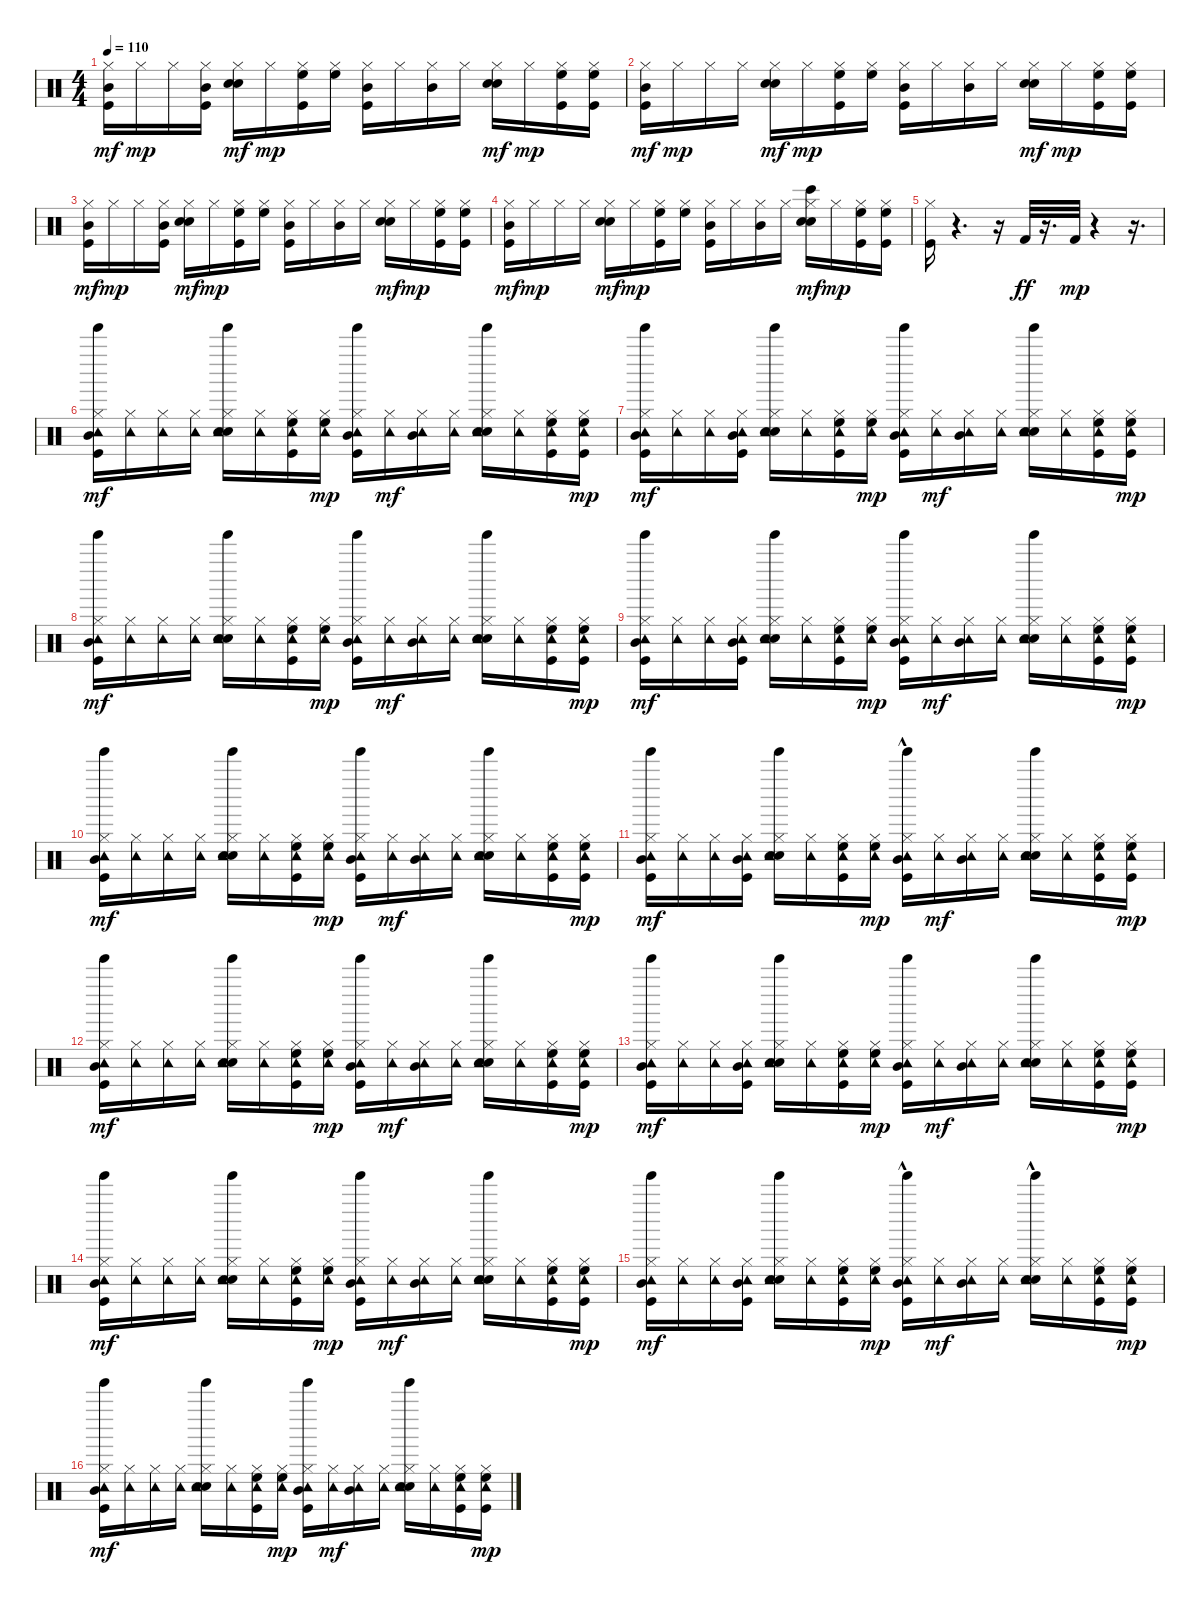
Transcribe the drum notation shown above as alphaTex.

\track "" {instrument percussion}
\staff {score}
\articulation defaults
\ts (4 4)
\tempo 110
\clef neutral
\ks c
("Kick (hit)" "Hi-Hat (closed)" "Mid Tom (hit)").16{dy mf} "Hi-Hat (closed)".16{dy mp} "Hi-Hat (closed)".16 ("Kick (hit)" "Hi-Hat (closed)" "Mid Tom (hit)").16 ("Electric Snare (hit)" "Hi-Hat (closed)" "Hand Clap (hit)").16{dy mf} "Hi-Hat (closed)".16{dy mp} ("Kick (hit)" "Hi-Hat (closed)" "High Floor Tom (hit)").16 ("Hi-Hat (closed)" "High Floor Tom (hit)").16 ("Kick (hit)" "Hi-Hat (closed)" "Mid Tom (hit)").16 "Hi-Hat (closed)".16 ("Hi-Hat (closed)" "Mid Tom (hit)").16 "Hi-Hat (closed)".16 ("Electric Snare (hit)" "Hi-Hat (closed)" "Hand Clap (hit)").16{dy mf} "Hi-Hat (closed)".16{dy mp} ("Kick (hit)" "Hi-Hat (closed)" "High Floor Tom (hit)").16 ("Kick (hit)" "Hi-Hat (closed)" "High Floor Tom (hit)").16 |
("Kick (hit)" "Hi-Hat (closed)" "Mid Tom (hit)").16{dy mf} "Hi-Hat (closed)".16{dy mp} "Hi-Hat (closed)".16 "Hi-Hat (closed)".16 ("Electric Snare (hit)" "Hi-Hat (closed)" "Hand Clap (hit)").16{dy mf} "Hi-Hat (closed)".16{dy mp} ("Kick (hit)" "Hi-Hat (closed)" "High Floor Tom (hit)").16 ("Hi-Hat (closed)" "High Floor Tom (hit)").16 ("Kick (hit)" "Hi-Hat (closed)" "Mid Tom (hit)").16 "Hi-Hat (closed)".16 ("Hi-Hat (closed)" "Mid Tom (hit)").16 "Hi-Hat (closed)".16 ("Electric Snare (hit)" "Hi-Hat (closed)" "Hand Clap (hit)").16{dy mf} "Hi-Hat (closed)".16{dy mp} ("Kick (hit)" "Hi-Hat (closed)" "High Floor Tom (hit)").16 ("Kick (hit)" "Hi-Hat (closed)" "High Floor Tom (hit)").16 |
("Kick (hit)" "Hi-Hat (closed)" "Mid Tom (hit)").16{dy mf} "Hi-Hat (closed)".16{dy mp} "Hi-Hat (closed)".16 ("Kick (hit)" "Hi-Hat (closed)" "Mid Tom (hit)").16 ("Electric Snare (hit)" "Hi-Hat (closed)" "Hand Clap (hit)").16{dy mf} "Hi-Hat (closed)".16{dy mp} ("Kick (hit)" "Hi-Hat (closed)" "High Floor Tom (hit)").16 ("Hi-Hat (closed)" "High Floor Tom (hit)").16 ("Kick (hit)" "Hi-Hat (closed)" "Mid Tom (hit)").16 "Hi-Hat (closed)".16 ("Hi-Hat (closed)" "Mid Tom (hit)").16 "Hi-Hat (closed)".16 ("Electric Snare (hit)" "Hi-Hat (closed)" "Hand Clap (hit)").16{dy mf} "Hi-Hat (closed)".16{dy mp} ("Kick (hit)" "Hi-Hat (closed)" "High Floor Tom (hit)").16 ("Kick (hit)" "Hi-Hat (closed)" "High Floor Tom (hit)").16 |
("Kick (hit)" "Hi-Hat (closed)" "Mid Tom (hit)").16{dy mf} "Hi-Hat (closed)".16{dy mp} "Hi-Hat (closed)".16 "Hi-Hat (closed)".16 ("Electric Snare (hit)" "Hi-Hat (closed)" "Hand Clap (hit)").16{dy mf} "Hi-Hat (closed)".16{dy mp} ("Kick (hit)" "Hi-Hat (closed)" "High Floor Tom (hit)").16 ("Hi-Hat (closed)" "High Floor Tom (hit)").16 ("Kick (hit)" "Hi-Hat (closed)" "Mid Tom (hit)").16 "Hi-Hat (closed)".16 ("Hi-Hat (closed)" "Mid Tom (hit)").16 "Hi-Hat (closed)".16 ("Bongo High (hit)" "Electric Snare (hit)" "Hi-Hat (closed)" "Hand Clap (hit)").16{dy mf} "Hi-Hat (closed)".16{dy mp} ("Kick (hit)" "Hi-Hat (closed)" "High Floor Tom (hit)").16 ("Kick (hit)" "Hi-Hat (closed)" "High Floor Tom (hit)").16 |
("Kick (hit)" "Hi-Hat (closed)").16 r.4{d} r.16 "Kick (hit) 2".32{dy ff} r.16{d} "Kick (hit) 2".32{dy mp} r.4 r.16{d} |
("Tinkle Bell (hit)" "Kick (hit)" "Hi-Hat (closed)" "Tambourine (hit)" "Mid Tom (hit)").16{dy mf} ("Hi-Hat (closed)" "Tambourine (hit)").16 ("Hi-Hat (closed)" "Tambourine (hit)").16 ("Hi-Hat (closed)" "Tambourine (hit)").16 ("Tinkle Bell (hit)" "Electric Snare (hit)" "Hi-Hat (closed)" "Tambourine (hit)" "Hand Clap (hit)").16 ("Hi-Hat (closed)" "Tambourine (hit)").16 ("Kick (hit)" "Hi-Hat (closed)" "Tambourine (hit)" "High Floor Tom (hit)").16 ("Hi-Hat (closed)" "Tambourine (hit)" "High Floor Tom (hit)").16{dy mp} ("Tinkle Bell (hit)" "Kick (hit)" "Hi-Hat (closed)" "Tambourine (hit)" "Mid Tom (hit)").16 ("Hi-Hat (closed)" "Tambourine (hit)").16{dy mf} ("Hi-Hat (closed)" "Tambourine (hit)" "Mid Tom (hit)").16 ("Hi-Hat (closed)" "Tambourine (hit)").16 ("Tinkle Bell (hit)" "Electric Snare (hit)" "Hi-Hat (closed)" "Tambourine (hit)" "Hand Clap (hit)").16 ("Hi-Hat (closed)" "Tambourine (hit)").16 ("Kick (hit)" "Hi-Hat (closed)" "Tambourine (hit)" "High Floor Tom (hit)").16 ("Kick (hit)" "Hi-Hat (closed)" "Tambourine (hit)" "High Floor Tom (hit)").16{dy mp} |
("Tinkle Bell (hit)" "Kick (hit)" "Hi-Hat (closed)" "Tambourine (hit)" "Mid Tom (hit)").16{dy mf} ("Hi-Hat (closed)" "Tambourine (hit)").16 ("Hi-Hat (closed)" "Tambourine (hit)").16 ("Kick (hit)" "Hi-Hat (closed)" "Tambourine (hit)" "Mid Tom (hit)").16 ("Tinkle Bell (hit)" "Electric Snare (hit)" "Hi-Hat (closed)" "Tambourine (hit)" "Hand Clap (hit)").16 ("Hi-Hat (closed)" "Tambourine (hit)").16 ("Kick (hit)" "Hi-Hat (closed)" "Tambourine (hit)" "High Floor Tom (hit)").16 ("Hi-Hat (closed)" "Tambourine (hit)" "High Floor Tom (hit)").16{dy mp} ("Tinkle Bell (hit)" "Kick (hit)" "Hi-Hat (closed)" "Tambourine (hit)" "Mid Tom (hit)").16 ("Hi-Hat (closed)" "Tambourine (hit)").16{dy mf} ("Hi-Hat (closed)" "Tambourine (hit)" "Mid Tom (hit)").16 ("Hi-Hat (closed)" "Tambourine (hit)").16 ("Tinkle Bell (hit)" "Electric Snare (hit)" "Hi-Hat (closed)" "Tambourine (hit)" "Hand Clap (hit)").16 ("Hi-Hat (closed)" "Tambourine (hit)").16 ("Kick (hit)" "Hi-Hat (closed)" "Tambourine (hit)" "High Floor Tom (hit)").16 ("Kick (hit)" "Hi-Hat (closed)" "Tambourine (hit)" "High Floor Tom (hit)").16{dy mp} |
("Tinkle Bell (hit)" "Kick (hit)" "Hi-Hat (closed)" "Tambourine (hit)" "Mid Tom (hit)").16{dy mf} ("Hi-Hat (closed)" "Tambourine (hit)").16 ("Hi-Hat (closed)" "Tambourine (hit)").16 ("Hi-Hat (closed)" "Tambourine (hit)").16 ("Tinkle Bell (hit)" "Electric Snare (hit)" "Hi-Hat (closed)" "Tambourine (hit)" "Hand Clap (hit)").16 ("Hi-Hat (closed)" "Tambourine (hit)").16 ("Kick (hit)" "Hi-Hat (closed)" "Tambourine (hit)" "High Floor Tom (hit)").16 ("Hi-Hat (closed)" "Tambourine (hit)" "High Floor Tom (hit)").16{dy mp} ("Tinkle Bell (hit)" "Kick (hit)" "Hi-Hat (closed)" "Tambourine (hit)" "Mid Tom (hit)").16 ("Hi-Hat (closed)" "Tambourine (hit)").16{dy mf} ("Hi-Hat (closed)" "Tambourine (hit)" "Mid Tom (hit)").16 ("Hi-Hat (closed)" "Tambourine (hit)").16 ("Tinkle Bell (hit)" "Electric Snare (hit)" "Hi-Hat (closed)" "Tambourine (hit)" "Hand Clap (hit)").16 ("Hi-Hat (closed)" "Tambourine (hit)").16 ("Kick (hit)" "Hi-Hat (closed)" "Tambourine (hit)" "High Floor Tom (hit)").16 ("Kick (hit)" "Hi-Hat (closed)" "Tambourine (hit)" "High Floor Tom (hit)").16{dy mp} |
("Tinkle Bell (hit)" "Kick (hit)" "Hi-Hat (closed)" "Tambourine (hit)" "Mid Tom (hit)").16{dy mf} ("Hi-Hat (closed)" "Tambourine (hit)").16 ("Hi-Hat (closed)" "Tambourine (hit)").16 ("Kick (hit)" "Hi-Hat (closed)" "Tambourine (hit)" "Mid Tom (hit)").16 ("Tinkle Bell (hit)" "Electric Snare (hit)" "Hi-Hat (closed)" "Tambourine (hit)" "Hand Clap (hit)").16 ("Hi-Hat (closed)" "Tambourine (hit)").16 ("Kick (hit)" "Hi-Hat (closed)" "Tambourine (hit)" "High Floor Tom (hit)").16 ("Hi-Hat (closed)" "Tambourine (hit)" "High Floor Tom (hit)").16{dy mp} ("Tinkle Bell (hit)" "Kick (hit)" "Hi-Hat (closed)" "Tambourine (hit)" "Mid Tom (hit)").16 ("Hi-Hat (closed)" "Tambourine (hit)").16{dy mf} ("Hi-Hat (closed)" "Tambourine (hit)" "Mid Tom (hit)").16 ("Hi-Hat (closed)" "Tambourine (hit)").16 ("Tinkle Bell (hit)" "Electric Snare (hit)" "Hi-Hat (closed)" "Tambourine (hit)" "Hand Clap (hit)").16 ("Hi-Hat (closed)" "Tambourine (hit)").16 ("Kick (hit)" "Hi-Hat (closed)" "Tambourine (hit)" "High Floor Tom (hit)").16 ("Kick (hit)" "Hi-Hat (closed)" "Tambourine (hit)" "High Floor Tom (hit)").16{dy mp} |
("Tinkle Bell (hit)" "Kick (hit)" "Hi-Hat (closed)" "Tambourine (hit)" "Mid Tom (hit)").16{dy mf} ("Hi-Hat (closed)" "Tambourine (hit)").16 ("Hi-Hat (closed)" "Tambourine (hit)").16 ("Hi-Hat (closed)" "Tambourine (hit)").16 ("Tinkle Bell (hit)" "Electric Snare (hit)" "Hi-Hat (closed)" "Tambourine (hit)" "Hand Clap (hit)").16 ("Hi-Hat (closed)" "Tambourine (hit)").16 ("Kick (hit)" "Hi-Hat (closed)" "Tambourine (hit)" "High Floor Tom (hit)").16 ("Hi-Hat (closed)" "Tambourine (hit)" "High Floor Tom (hit)").16{dy mp} ("Tinkle Bell (hit)" "Kick (hit)" "Hi-Hat (closed)" "Tambourine (hit)" "Mid Tom (hit)").16 ("Hi-Hat (closed)" "Tambourine (hit)").16{dy mf} ("Hi-Hat (closed)" "Tambourine (hit)" "Mid Tom (hit)").16 ("Hi-Hat (closed)" "Tambourine (hit)").16 ("Tinkle Bell (hit)" "Electric Snare (hit)" "Hi-Hat (closed)" "Tambourine (hit)" "Hand Clap (hit)").16 ("Hi-Hat (closed)" "Tambourine (hit)").16 ("Kick (hit)" "Hi-Hat (closed)" "Tambourine (hit)" "High Floor Tom (hit)").16 ("Kick (hit)" "Hi-Hat (closed)" "Tambourine (hit)" "High Floor Tom (hit)").16{dy mp} |
("Tinkle Bell (hit)" "Kick (hit)" "Hi-Hat (closed)" "Tambourine (hit)" "Mid Tom (hit)").16{dy mf} ("Hi-Hat (closed)" "Tambourine (hit)").16 ("Hi-Hat (closed)" "Tambourine (hit)").16 ("Kick (hit)" "Hi-Hat (closed)" "Tambourine (hit)" "Mid Tom (hit)").16 ("Tinkle Bell (hit)" "Electric Snare (hit)" "Hi-Hat (closed)" "Tambourine (hit)" "Hand Clap (hit)").16 ("Hi-Hat (closed)" "Tambourine (hit)").16 ("Kick (hit)" "Hi-Hat (closed)" "Tambourine (hit)" "High Floor Tom (hit)").16 ("Hi-Hat (closed)" "Tambourine (hit)" "High Floor Tom (hit)").16{dy mp} ("Tinkle Bell (hit)"{hac} "Kick (hit)" "Hi-Hat (closed)" "Tambourine (hit)" "Mid Tom (hit)").16 ("Hi-Hat (closed)" "Tambourine (hit)").16{dy mf} ("Hi-Hat (closed)" "Tambourine (hit)" "Mid Tom (hit)").16 ("Hi-Hat (closed)" "Tambourine (hit)").16 ("Tinkle Bell (hit)" "Electric Snare (hit)" "Hi-Hat (closed)" "Tambourine (hit)" "Hand Clap (hit)").16 ("Hi-Hat (closed)" "Tambourine (hit)").16 ("Kick (hit)" "Hi-Hat (closed)" "Tambourine (hit)" "High Floor Tom (hit)").16 ("Kick (hit)" "Hi-Hat (closed)" "Tambourine (hit)" "High Floor Tom (hit)").16{dy mp} |
("Tinkle Bell (hit)" "Kick (hit)" "Hi-Hat (closed)" "Tambourine (hit)" "Mid Tom (hit)").16{dy mf} ("Hi-Hat (closed)" "Tambourine (hit)").16 ("Hi-Hat (closed)" "Tambourine (hit)").16 ("Hi-Hat (closed)" "Tambourine (hit)").16 ("Tinkle Bell (hit)" "Electric Snare (hit)" "Hi-Hat (closed)" "Tambourine (hit)" "Hand Clap (hit)").16 ("Hi-Hat (closed)" "Tambourine (hit)").16 ("Kick (hit)" "Hi-Hat (closed)" "Tambourine (hit)" "High Floor Tom (hit)").16 ("Hi-Hat (closed)" "Tambourine (hit)" "High Floor Tom (hit)").16{dy mp} ("Tinkle Bell (hit)" "Kick (hit)" "Hi-Hat (closed)" "Tambourine (hit)" "Mid Tom (hit)").16 ("Hi-Hat (closed)" "Tambourine (hit)").16{dy mf} ("Hi-Hat (closed)" "Tambourine (hit)" "Mid Tom (hit)").16 ("Hi-Hat (closed)" "Tambourine (hit)").16 ("Tinkle Bell (hit)" "Electric Snare (hit)" "Hi-Hat (closed)" "Tambourine (hit)" "Hand Clap (hit)").16 ("Hi-Hat (closed)" "Tambourine (hit)").16 ("Kick (hit)" "Hi-Hat (closed)" "Tambourine (hit)" "High Floor Tom (hit)").16 ("Kick (hit)" "Hi-Hat (closed)" "Tambourine (hit)" "High Floor Tom (hit)").16{dy mp} |
("Tinkle Bell (hit)" "Kick (hit)" "Hi-Hat (closed)" "Tambourine (hit)" "Mid Tom (hit)").16{dy mf} ("Hi-Hat (closed)" "Tambourine (hit)").16 ("Hi-Hat (closed)" "Tambourine (hit)").16 ("Kick (hit)" "Hi-Hat (closed)" "Tambourine (hit)" "Mid Tom (hit)").16 ("Tinkle Bell (hit)" "Electric Snare (hit)" "Hi-Hat (closed)" "Tambourine (hit)" "Hand Clap (hit)").16 ("Hi-Hat (closed)" "Tambourine (hit)").16 ("Kick (hit)" "Hi-Hat (closed)" "Tambourine (hit)" "High Floor Tom (hit)").16 ("Hi-Hat (closed)" "Tambourine (hit)" "High Floor Tom (hit)").16{dy mp} ("Tinkle Bell (hit)" "Kick (hit)" "Hi-Hat (closed)" "Tambourine (hit)" "Mid Tom (hit)").16 ("Hi-Hat (closed)" "Tambourine (hit)").16{dy mf} ("Hi-Hat (closed)" "Tambourine (hit)" "Mid Tom (hit)").16 ("Hi-Hat (closed)" "Tambourine (hit)").16 ("Tinkle Bell (hit)" "Electric Snare (hit)" "Hi-Hat (closed)" "Tambourine (hit)" "Hand Clap (hit)").16 ("Hi-Hat (closed)" "Tambourine (hit)").16 ("Kick (hit)" "Hi-Hat (closed)" "Tambourine (hit)" "High Floor Tom (hit)").16 ("Kick (hit)" "Hi-Hat (closed)" "Tambourine (hit)" "High Floor Tom (hit)").16{dy mp} |
("Tinkle Bell (hit)" "Kick (hit)" "Hi-Hat (closed)" "Tambourine (hit)" "Mid Tom (hit)").16{dy mf} ("Hi-Hat (closed)" "Tambourine (hit)").16 ("Hi-Hat (closed)" "Tambourine (hit)").16 ("Hi-Hat (closed)" "Tambourine (hit)").16 ("Tinkle Bell (hit)" "Electric Snare (hit)" "Hi-Hat (closed)" "Tambourine (hit)" "Hand Clap (hit)").16 ("Hi-Hat (closed)" "Tambourine (hit)").16 ("Kick (hit)" "Hi-Hat (closed)" "Tambourine (hit)" "High Floor Tom (hit)").16 ("Hi-Hat (closed)" "Tambourine (hit)" "High Floor Tom (hit)").16{dy mp} ("Tinkle Bell (hit)" "Kick (hit)" "Hi-Hat (closed)" "Tambourine (hit)" "Mid Tom (hit)").16 ("Hi-Hat (closed)" "Tambourine (hit)").16{dy mf} ("Hi-Hat (closed)" "Tambourine (hit)" "Mid Tom (hit)").16 ("Hi-Hat (closed)" "Tambourine (hit)").16 ("Tinkle Bell (hit)" "Electric Snare (hit)" "Hi-Hat (closed)" "Tambourine (hit)" "Hand Clap (hit)").16 ("Hi-Hat (closed)" "Tambourine (hit)").16 ("Kick (hit)" "Hi-Hat (closed)" "Tambourine (hit)" "High Floor Tom (hit)").16 ("Kick (hit)" "Hi-Hat (closed)" "Tambourine (hit)" "High Floor Tom (hit)").16{dy mp} |
("Tinkle Bell (hit)" "Kick (hit)" "Hi-Hat (closed)" "Tambourine (hit)" "Mid Tom (hit)").16{dy mf} ("Hi-Hat (closed)" "Tambourine (hit)").16 ("Hi-Hat (closed)" "Tambourine (hit)").16 ("Kick (hit)" "Hi-Hat (closed)" "Tambourine (hit)" "Mid Tom (hit)").16 ("Tinkle Bell (hit)" "Electric Snare (hit)" "Hi-Hat (closed)" "Tambourine (hit)" "Hand Clap (hit)").16 ("Hi-Hat (closed)" "Tambourine (hit)").16 ("Kick (hit)" "Hi-Hat (closed)" "Tambourine (hit)" "High Floor Tom (hit)").16 ("Hi-Hat (closed)" "Tambourine (hit)" "High Floor Tom (hit)").16{dy mp} ("Tinkle Bell (hit)"{hac} "Kick (hit)" "Hi-Hat (closed)" "Tambourine (hit)" "Mid Tom (hit)").16 ("Hi-Hat (closed)" "Tambourine (hit)").16{dy mf} ("Hi-Hat (closed)" "Tambourine (hit)" "Mid Tom (hit)").16 ("Hi-Hat (closed)" "Tambourine (hit)").16 ("Tinkle Bell (hit)"{hac} "Electric Snare (hit)" "Hi-Hat (closed)" "Tambourine (hit)" "Hand Clap (hit)").16 ("Hi-Hat (closed)" "Tambourine (hit)").16 ("Kick (hit)" "Hi-Hat (closed)" "Tambourine (hit)" "High Floor Tom (hit)").16 ("Kick (hit)" "Hi-Hat (closed)" "Tambourine (hit)" "High Floor Tom (hit)").16{dy mp} |
("Tinkle Bell (hit)" "Kick (hit)" "Hi-Hat (closed)" "Tambourine (hit)" "Mid Tom (hit)").16{dy mf} ("Hi-Hat (closed)" "Tambourine (hit)").16 ("Hi-Hat (closed)" "Tambourine (hit)").16 ("Hi-Hat (closed)" "Tambourine (hit)").16 ("Tinkle Bell (hit)" "Electric Snare (hit)" "Hi-Hat (closed)" "Tambourine (hit)" "Hand Clap (hit)").16 ("Hi-Hat (closed)" "Tambourine (hit)").16 ("Kick (hit)" "Hi-Hat (closed)" "Tambourine (hit)" "High Floor Tom (hit)").16 ("Hi-Hat (closed)" "Tambourine (hit)" "High Floor Tom (hit)").16{dy mp} ("Tinkle Bell (hit)" "Kick (hit)" "Hi-Hat (closed)" "Tambourine (hit)" "Mid Tom (hit)").16 ("Hi-Hat (closed)" "Tambourine (hit)").16{dy mf} ("Hi-Hat (closed)" "Tambourine (hit)" "Mid Tom (hit)").16 ("Hi-Hat (closed)" "Tambourine (hit)").16 ("Tinkle Bell (hit)" "Electric Snare (hit)" "Hi-Hat (closed)" "Tambourine (hit)" "Hand Clap (hit)").16 ("Hi-Hat (closed)" "Tambourine (hit)").16 ("Kick (hit)" "Hi-Hat (closed)" "Tambourine (hit)" "High Floor Tom (hit)").16 ("Kick (hit)" "Hi-Hat (closed)" "Tambourine (hit)" "High Floor Tom (hit)").16{dy mp}
